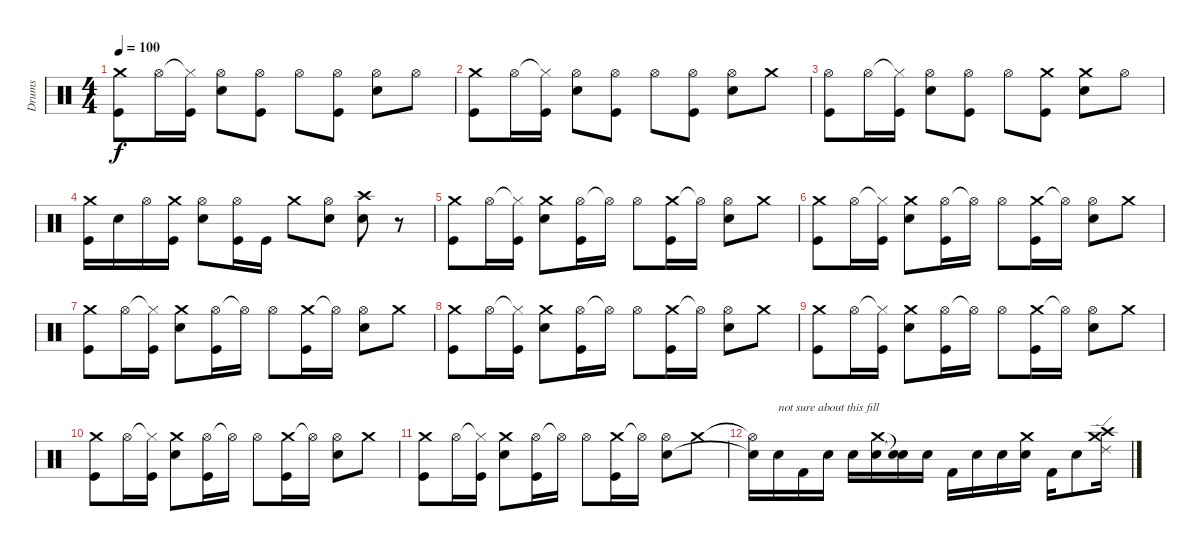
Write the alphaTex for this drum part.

\track ("Drums" "Drums") {instrument percussion}
\staff {score}
\articulation defaults
\ts (4 4)
\tempo 100
\clef neutral
\ks c
("Crash medium (hit)" "Kick (hit)").8{dy f} "Hi-Hat (open)".16 ("Hi-Hat (closed)"{t} "Kick (hit)").16 ("Hi-Hat (open)" "Electric Snare (hit)").8 ("Hi-Hat (open)" "Kick (hit)").8 "Hi-Hat (open)".8 ("Hi-Hat (open)" "Kick (hit)").8 ("Hi-Hat (open)" "Electric Snare (hit)").8 "Hi-Hat (open)".8 |
("Crash medium (hit)" "Kick (hit)").8 "Hi-Hat (open)".16 ("Hi-Hat (closed)"{t} "Kick (hit)").16 ("Hi-Hat (open)" "Electric Snare (hit)").8 ("Hi-Hat (open)" "Kick (hit)").8 "Hi-Hat (open)".8 ("Hi-Hat (open)" "Kick (hit)").8 ("Hi-Hat (open)" "Electric Snare (hit)").8 "Crash medium (hit)".8 |
("Hi-Hat (open)" "Kick (hit)").8 "Hi-Hat (open)".16 ("Hi-Hat (closed)"{t} "Kick (hit)").16 ("Hi-Hat (open)" "Electric Snare (hit)").8 ("Hi-Hat (open)" "Kick (hit)").8 "Hi-Hat (open)".8 ("Crash medium (hit)" "Kick (hit)").8 ("Crash medium (hit)" "Electric Snare (hit)").8 "Hi-Hat (open)".8 |
("Crash medium (hit)" "Kick (hit)").16 "Electric Snare (hit)".16 "Hi-Hat (open)".16 ("Crash medium (hit)" "Kick (hit)").16 ("Hi-Hat (open)" "Electric Snare (hit)").8 ("Hi-Hat (open)" "Kick (hit)").16 "Kick (hit)".16 "Crash medium (hit)".8 ("Hi-Hat (open)" "Electric Snare (hit)").8 ("Crash high (hit)" "Electric Snare (hit)").8 r.8 |
("Crash medium (hit)" "Kick (hit)").8 "Hi-Hat (open)".16 ("Hi-Hat (closed)"{t} "Kick (hit)").16 ("Crash medium (hit)" "Electric Snare (hit)").8 ("Hi-Hat (open)" "Kick (hit)").16 "Hi-Hat (open)"{t}.16 "Hi-Hat (open)".8 ("Crash medium (hit)" "Kick (hit)").16 "Hi-Hat (open)"{t}.16 ("Hi-Hat (open)" "Electric Snare (hit)").8 "Crash medium (hit)".8 |
("Crash medium (hit)" "Kick (hit)").8 "Hi-Hat (open)".16 ("Hi-Hat (closed)"{t} "Kick (hit)").16 ("Crash medium (hit)" "Electric Snare (hit)").8 ("Hi-Hat (open)" "Kick (hit)").16 "Hi-Hat (open)"{t}.16 "Hi-Hat (open)".8 ("Crash medium (hit)" "Kick (hit)").16 "Hi-Hat (open)"{t}.16 ("Hi-Hat (open)" "Electric Snare (hit)").8 "Crash medium (hit)".8 |
("Crash medium (hit)" "Kick (hit)").8 "Hi-Hat (open)".16 ("Hi-Hat (closed)"{t} "Kick (hit)").16 ("Crash medium (hit)" "Electric Snare (hit)").8 ("Hi-Hat (open)" "Kick (hit)").16 "Hi-Hat (open)"{t}.16 "Hi-Hat (open)".8 ("Crash medium (hit)" "Kick (hit)").16 "Hi-Hat (open)"{t}.16 ("Hi-Hat (open)" "Electric Snare (hit)").8 "Crash medium (hit)".8 |
("Crash medium (hit)" "Kick (hit)").8 "Hi-Hat (open)".16 ("Hi-Hat (closed)"{t} "Kick (hit)").16 ("Crash medium (hit)" "Electric Snare (hit)").8 ("Hi-Hat (open)" "Kick (hit)").16 "Hi-Hat (open)"{t}.16 "Hi-Hat (open)".8 ("Crash medium (hit)" "Kick (hit)").16 "Hi-Hat (open)"{t}.16 ("Hi-Hat (open)" "Electric Snare (hit)").8 "Crash medium (hit)".8 |
("Crash medium (hit)" "Kick (hit)").8 "Hi-Hat (open)".16 ("Hi-Hat (closed)"{t} "Kick (hit)").16 ("Crash medium (hit)" "Electric Snare (hit)").8 ("Hi-Hat (open)" "Kick (hit)").16 "Hi-Hat (open)"{t}.16 "Hi-Hat (open)".8 ("Crash medium (hit)" "Kick (hit)").16 "Hi-Hat (open)"{t}.16 ("Hi-Hat (open)" "Electric Snare (hit)").8 "Crash medium (hit)".8 |
("Crash medium (hit)" "Kick (hit)").8 "Hi-Hat (open)".16 ("Hi-Hat (closed)"{t} "Kick (hit)").16 ("Crash medium (hit)" "Electric Snare (hit)").8 ("Hi-Hat (open)" "Kick (hit)").16 "Hi-Hat (open)"{t}.16 "Hi-Hat (open)".8 ("Crash medium (hit)" "Kick (hit)").16 "Hi-Hat (open)"{t}.16 ("Hi-Hat (open)" "Electric Snare (hit)").8 "Crash medium (hit)".8 |
("Crash medium (hit)" "Kick (hit)").8 "Hi-Hat (open)".16 ("Hi-Hat (closed)"{t} "Kick (hit)").16 ("Crash medium (hit)" "Electric Snare (hit)").8 ("Hi-Hat (open)" "Kick (hit)").16 "Hi-Hat (open)"{t}.16 "Hi-Hat (open)".8 ("Crash medium (hit)" "Kick (hit)").16 "Hi-Hat (open)"{t}.16 ("Hi-Hat (open)" "Electric Snare (hit)").8 "Crash medium (hit)".8 |
("Hi-Hat (open)"{t} "Snare (hit)"{t}).16 "Electric Snare (hit)".16{txt "not sure about this fill"} "Kick (hit) 2".16 "Electric Snare (hit)".16 "Electric Snare (hit)".16 ("Crash medium (hit)" "Electric Snare (hit)").16 ("Snare (hit)"{t} "Snare (hit)"{t}).16 "Electric Snare (hit)".16 "Kick (hit) 2".16 "Electric Snare (hit)".16 "Electric Snare (hit)".16 ("Crash medium (hit)" "Electric Snare (hit)").16 "Kick (hit) 2".16 "Electric Snare (hit)".8 ("Crash medium (hit)" "Ride (edge) 2" "Crash high (hit)").16
